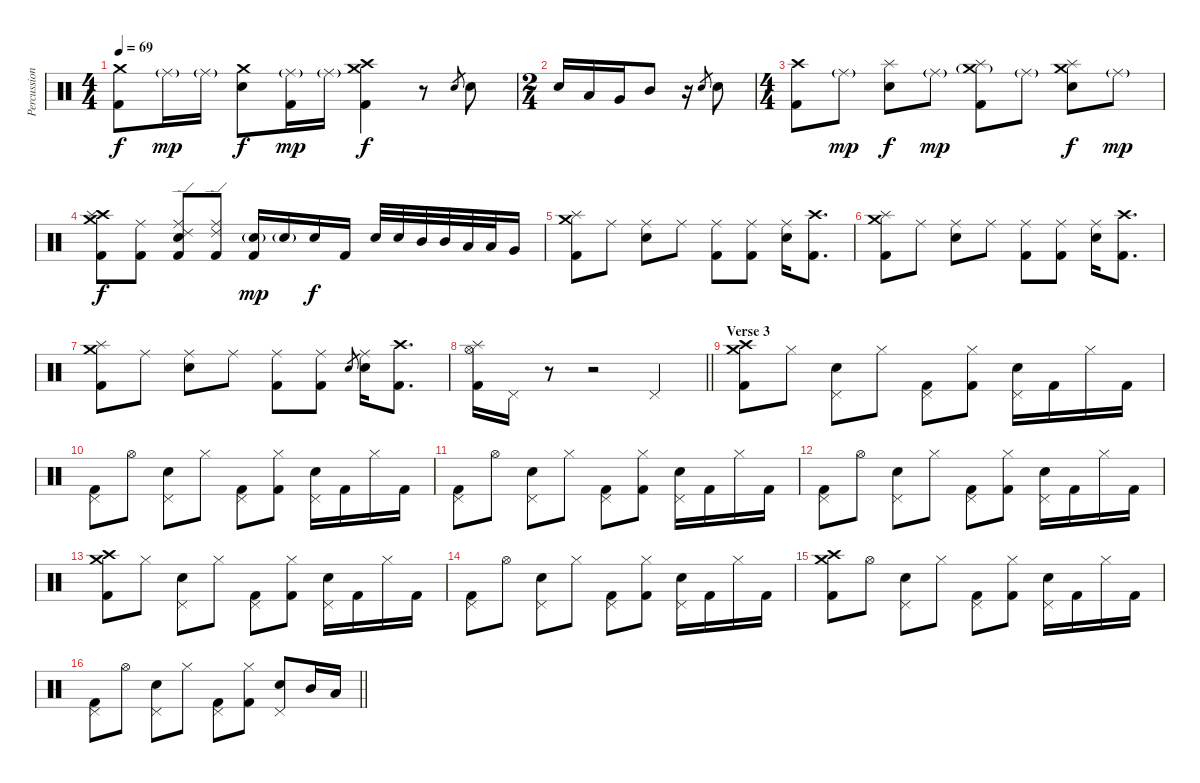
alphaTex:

\track ("Percussion" "Percussion") {instrument percussion}
\staff {score}
\articulation defaults
\ts (4 4)
\tempo 69
\clef neutral
\ks c
("Crash medium (hit)" "Kick (hit) 2").8{dy f} "Ride (middle)"{g}.16{dy mp} "Ride (middle)"{g}.16 ("Crash medium (hit)" "Snare (hit) 2").8{dy f} ("Ride (middle)"{g} "Kick (hit) 2").16{dy mp} "Ride (middle)"{g}.16 ("Crash medium (hit)" "Crash high (hit)" "Kick (hit) 2").4{dy f} r.8 "Snare (hit) 2".8{gr} "Snare (hit) 2".8 |
\ts (2 4)
"Snare (hit) 2".16 "Low Tom (hit)".16 "Very Low Tom (hit)".16 "Mid Tom (hit)".8 r.16 "Snare (hit) 2".8{gr} "Snare (hit) 2".8 |
\ts (4 4)
("Crash high (hit)" "Kick (hit) 2").8 "Ride (middle)"{g}.8{dy mp} ("Splash (hit)" "Snare (hit) 2").8{dy f} "Ride (middle)"{g}.8{dy mp} ("Splash (hit)" "Crash medium (hit)"{g} "Kick (hit) 2").8 "Ride (middle)"{g}.8 ("Splash (hit)" "Crash medium (hit)" "Snare (hit) 2").8{dy f} "Ride (middle)"{g}.8{dy mp} |
("Crash medium (hit)" "Crash high (hit)" "Splash (hit)" "Kick (hit) 2").8{dy f} ("Ride (middle)" "Kick (hit) 2").8 ("Ride (middle)" "Ride (edge) 2" "Snare (hit) 2" "Kick (hit) 2").8 ("Ride (middle)" "Ride (edge) 2" "Kick (hit) 2").8 ("Snare (hit) 2"{g} "Kick (hit) 2").16{dy mp} "Snare (hit) 2"{g}.16 "Snare (hit) 2".16{dy f} "Kick (hit) 2".16 "Snare (hit) 2".32 "Snare (hit) 2".32 "Mid Tom (hit)".32 "Mid Tom (hit)".32 "Low Tom (hit)".32 "Low Tom (hit)".32 "Very Low Tom (hit)".16 |
("Splash (hit)" "Crash medium (hit)" "Kick (hit) 2").8 "Ride (middle)".8 ("Ride (middle)" "Snare (hit) 2").8 "Ride (middle)".8 ("Ride (middle)" "Kick (hit) 2").8 ("Ride (middle)" "Kick (hit) 2").8 ("Ride (middle)" "Snare (hit) 2").16 ("Crash high (hit)" "Kick (hit) 2").8{d} |
("Splash (hit)" "Crash medium (hit)" "Kick (hit) 2").8 "Ride (middle)".8 ("Ride (middle)" "Snare (hit) 2").8 "Ride (middle)".8 ("Ride (middle)" "Kick (hit) 2").8 ("Ride (middle)" "Kick (hit) 2").8 ("Ride (middle)" "Snare (hit) 2").16 ("Crash high (hit)" "Kick (hit) 2").8{d} |
("Splash (hit)" "Crash medium (hit)" "Kick (hit) 2").8 "Ride (middle)".8 ("Ride (middle)" "Snare (hit) 2").8 "Ride (middle)".8 ("Ride (middle)" "Kick (hit) 2").8 ("Ride (middle)" "Kick (hit) 2").8 "Snare (hit) 2".8{gr} ("Ride (middle)" "Snare (hit) 2").16 ("Crash high (hit)" "Kick (hit) 2").8{d} |
\barLineRight lightlight
("Splash (hit)" "Hi-Hat (open)" "Kick (hit) 2").16 "Pedal Hi-Hat (hit)".16 r.8 r.2 "Pedal Hi-Hat (hit)".4 |
\section ("" "Verse 3")
("Crash medium (hit)" "Crash high (hit)" "Kick (hit) 2").8 "Hi-Hat (closed)".8 ("Snare (hit) 2" "Pedal Hi-Hat (hit)").8 "Hi-Hat (closed)".8 ("Pedal Hi-Hat (hit)" "Kick (hit) 2").8 ("Hi-Hat (closed)" "Kick (hit) 2").8 ("Snare (hit) 2" "Pedal Hi-Hat (hit)").16 "Kick (hit) 2".16 "Hi-Hat (closed)".16 "Kick (hit) 2".16 |
("Pedal Hi-Hat (hit)" "Kick (hit) 2").8 "Hi-Hat (open)".8 ("Snare (hit) 2" "Pedal Hi-Hat (hit)").8 "Hi-Hat (closed)".8 ("Pedal Hi-Hat (hit)" "Kick (hit) 2").8 ("Hi-Hat (closed)" "Kick (hit) 2").8 ("Snare (hit) 2" "Pedal Hi-Hat (hit)").16 "Kick (hit) 2".16 "Hi-Hat (closed)".16 "Kick (hit) 2".16 |
("Pedal Hi-Hat (hit)" "Kick (hit) 2").8 "Hi-Hat (open)".8 ("Snare (hit) 2" "Pedal Hi-Hat (hit)").8 "Hi-Hat (closed)".8 ("Pedal Hi-Hat (hit)" "Kick (hit) 2").8 ("Hi-Hat (closed)" "Kick (hit) 2").8 ("Snare (hit) 2" "Pedal Hi-Hat (hit)").16 "Kick (hit) 2".16 "Hi-Hat (closed)".16 "Kick (hit) 2".16 |
("Pedal Hi-Hat (hit)" "Kick (hit) 2").8 "Hi-Hat (open)".8 ("Snare (hit) 2" "Pedal Hi-Hat (hit)").8 "Hi-Hat (closed)".8 ("Pedal Hi-Hat (hit)" "Kick (hit) 2").8 ("Hi-Hat (closed)" "Kick (hit) 2").8 ("Snare (hit) 2" "Pedal Hi-Hat (hit)").16 "Kick (hit) 2".16 "Hi-Hat (closed)".16 "Kick (hit) 2".16 |
("Crash medium (hit)" "Crash high (hit)" "Kick (hit) 2").8 "Hi-Hat (closed)".8 ("Snare (hit) 2" "Pedal Hi-Hat (hit)").8 "Hi-Hat (closed)".8 ("Pedal Hi-Hat (hit)" "Kick (hit) 2").8 ("Hi-Hat (closed)" "Kick (hit) 2").8 ("Snare (hit) 2" "Pedal Hi-Hat (hit)").16 "Kick (hit) 2".16 "Hi-Hat (closed)".16 "Kick (hit) 2".16 |
("Pedal Hi-Hat (hit)" "Kick (hit) 2").8 "Hi-Hat (open)".8 ("Snare (hit) 2" "Pedal Hi-Hat (hit)").8 "Hi-Hat (closed)".8 ("Pedal Hi-Hat (hit)" "Kick (hit) 2").8 ("Hi-Hat (closed)" "Kick (hit) 2").8 ("Snare (hit) 2" "Pedal Hi-Hat (hit)").16 "Kick (hit) 2".16 "Hi-Hat (closed)".16 "Kick (hit) 2".16 |
("Crash medium (hit)" "Crash high (hit)" "Kick (hit) 2").8 "Hi-Hat (open)".8 ("Snare (hit) 2" "Pedal Hi-Hat (hit)").8 "Hi-Hat (closed)".8 ("Pedal Hi-Hat (hit)" "Kick (hit) 2").8 ("Hi-Hat (closed)" "Kick (hit) 2").8 ("Snare (hit) 2" "Pedal Hi-Hat (hit)").16 "Kick (hit) 2".16 "Hi-Hat (closed)".16 "Kick (hit) 2".16 |
\barLineRight lightlight
("Pedal Hi-Hat (hit)" "Kick (hit) 2").8 "Hi-Hat (open)".8 ("Snare (hit) 2" "Pedal Hi-Hat (hit)").8 "Hi-Hat (closed)".8 ("Pedal Hi-Hat (hit)" "Kick (hit) 2").8 ("Hi-Hat (closed)" "Kick (hit) 2").8 ("Snare (hit) 2" "Pedal Hi-Hat (hit)").8 "Mid Tom (hit)".16 "Low Tom (hit)".16
